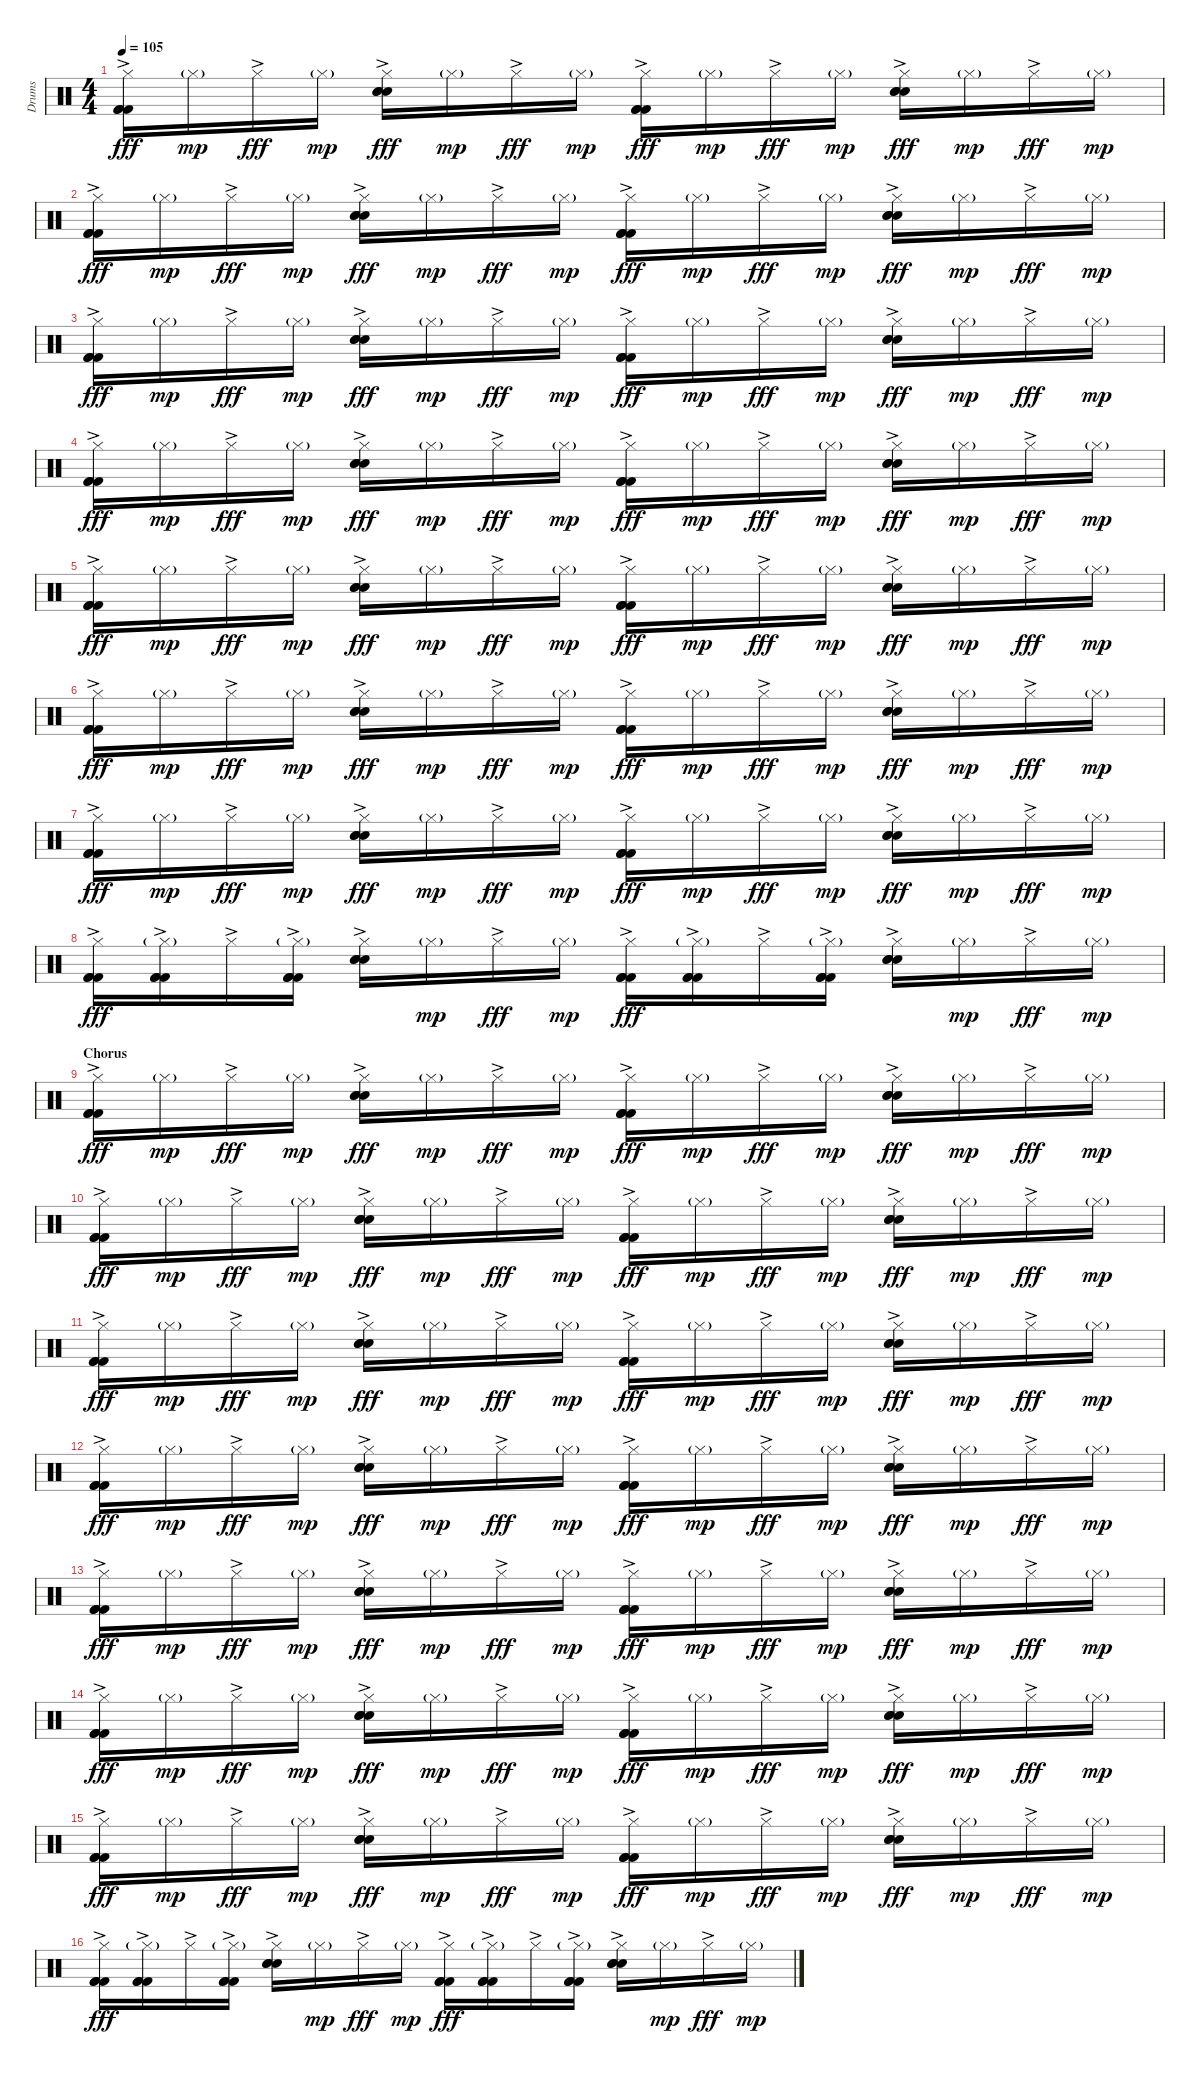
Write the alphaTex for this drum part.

\track ("Drums" "Drums") {instrument percussion}
\staff {score}
\articulation defaults
\ts (4 4)
\tempo 105
\clef neutral
\ks c
("Hi-Hat (closed)"{ac} "Kick (hit) 2"{ac} "Kick (hit) 2"{ac} "Kick (hit) 2"{ac}).16{dy fff} "Hi-Hat (closed)"{g}.16{dy mp} "Hi-Hat (closed)"{ac}.16{dy fff} "Hi-Hat (closed)"{g}.16{dy mp} ("Hi-Hat (closed)"{ac} "Snare (hit) 2"{ac} "Snare (hit) 2"{ac} "Snare (hit) 2"{ac}).16{dy fff} "Hi-Hat (closed)"{g}.16{dy mp} "Hi-Hat (closed)"{ac}.16{dy fff} "Hi-Hat (closed)"{g}.16{dy mp} ("Hi-Hat (closed)"{ac} "Kick (hit) 2"{ac} "Kick (hit) 2"{ac} "Kick (hit) 2"{ac}).16{dy fff} "Hi-Hat (closed)"{g}.16{dy mp} "Hi-Hat (closed)"{ac}.16{dy fff} "Hi-Hat (closed)"{g}.16{dy mp} ("Hi-Hat (closed)"{ac} "Snare (hit) 2"{ac} "Snare (hit) 2"{ac} "Snare (hit) 2"{ac}).16{dy fff} "Hi-Hat (closed)"{g}.16{dy mp} "Hi-Hat (closed)"{ac}.16{dy fff} "Hi-Hat (closed)"{g}.16{dy mp} |
("Hi-Hat (closed)"{ac} "Kick (hit) 2"{ac} "Kick (hit) 2"{ac} "Kick (hit) 2"{ac}).16{dy fff} "Hi-Hat (closed)"{g}.16{dy mp} "Hi-Hat (closed)"{ac}.16{dy fff} "Hi-Hat (closed)"{g}.16{dy mp} ("Hi-Hat (closed)"{ac} "Snare (hit) 2"{ac} "Snare (hit) 2"{ac} "Snare (hit) 2"{ac}).16{dy fff} "Hi-Hat (closed)"{g}.16{dy mp} "Hi-Hat (closed)"{ac}.16{dy fff} "Hi-Hat (closed)"{g}.16{dy mp} ("Hi-Hat (closed)"{ac} "Kick (hit) 2"{ac} "Kick (hit) 2"{ac} "Kick (hit) 2"{ac}).16{dy fff} "Hi-Hat (closed)"{g}.16{dy mp} "Hi-Hat (closed)"{ac}.16{dy fff} "Hi-Hat (closed)"{g}.16{dy mp} ("Hi-Hat (closed)"{ac} "Snare (hit) 2"{ac} "Snare (hit) 2"{ac} "Snare (hit) 2"{ac}).16{dy fff} "Hi-Hat (closed)"{g}.16{dy mp} "Hi-Hat (closed)"{ac}.16{dy fff} "Hi-Hat (closed)"{g}.16{dy mp} |
("Hi-Hat (closed)"{ac} "Kick (hit) 2"{ac} "Kick (hit) 2"{ac} "Kick (hit) 2"{ac}).16{dy fff} "Hi-Hat (closed)"{g}.16{dy mp} "Hi-Hat (closed)"{ac}.16{dy fff} "Hi-Hat (closed)"{g}.16{dy mp} ("Hi-Hat (closed)"{ac} "Snare (hit) 2"{ac} "Snare (hit) 2"{ac} "Snare (hit) 2"{ac}).16{dy fff} "Hi-Hat (closed)"{g}.16{dy mp} "Hi-Hat (closed)"{ac}.16{dy fff} "Hi-Hat (closed)"{g}.16{dy mp} ("Hi-Hat (closed)"{ac} "Kick (hit) 2"{ac} "Kick (hit) 2"{ac} "Kick (hit) 2"{ac}).16{dy fff} "Hi-Hat (closed)"{g}.16{dy mp} "Hi-Hat (closed)"{ac}.16{dy fff} "Hi-Hat (closed)"{g}.16{dy mp} ("Hi-Hat (closed)"{ac} "Snare (hit) 2"{ac} "Snare (hit) 2"{ac} "Snare (hit) 2"{ac}).16{dy fff} "Hi-Hat (closed)"{g}.16{dy mp} "Hi-Hat (closed)"{ac}.16{dy fff} "Hi-Hat (closed)"{g}.16{dy mp} |
("Hi-Hat (closed)"{ac} "Kick (hit) 2"{ac} "Kick (hit) 2"{ac} "Kick (hit) 2"{ac}).16{dy fff} "Hi-Hat (closed)"{g}.16{dy mp} "Hi-Hat (closed)"{ac}.16{dy fff} "Hi-Hat (closed)"{g}.16{dy mp} ("Hi-Hat (closed)"{ac} "Snare (hit) 2"{ac} "Snare (hit) 2"{ac} "Snare (hit) 2"{ac}).16{dy fff} "Hi-Hat (closed)"{g}.16{dy mp} "Hi-Hat (closed)"{ac}.16{dy fff} "Hi-Hat (closed)"{g}.16{dy mp} ("Hi-Hat (closed)"{ac} "Kick (hit) 2"{ac} "Kick (hit) 2"{ac} "Kick (hit) 2"{ac}).16{dy fff} "Hi-Hat (closed)"{g}.16{dy mp} "Hi-Hat (closed)"{ac}.16{dy fff} "Hi-Hat (closed)"{g}.16{dy mp} ("Hi-Hat (closed)"{ac} "Snare (hit) 2"{ac} "Snare (hit) 2"{ac} "Snare (hit) 2"{ac}).16{dy fff} "Hi-Hat (closed)"{g}.16{dy mp} "Hi-Hat (closed)"{ac}.16{dy fff} "Hi-Hat (closed)"{g}.16{dy mp} |
("Hi-Hat (closed)"{ac} "Kick (hit) 2"{ac} "Kick (hit) 2"{ac} "Kick (hit) 2"{ac}).16{dy fff} "Hi-Hat (closed)"{g}.16{dy mp} "Hi-Hat (closed)"{ac}.16{dy fff} "Hi-Hat (closed)"{g}.16{dy mp} ("Hi-Hat (closed)"{ac} "Snare (hit) 2"{ac} "Snare (hit) 2"{ac} "Snare (hit) 2"{ac}).16{dy fff} "Hi-Hat (closed)"{g}.16{dy mp} "Hi-Hat (closed)"{ac}.16{dy fff} "Hi-Hat (closed)"{g}.16{dy mp} ("Hi-Hat (closed)"{ac} "Kick (hit) 2"{ac} "Kick (hit) 2"{ac} "Kick (hit) 2"{ac}).16{dy fff} "Hi-Hat (closed)"{g}.16{dy mp} "Hi-Hat (closed)"{ac}.16{dy fff} "Hi-Hat (closed)"{g}.16{dy mp} ("Hi-Hat (closed)"{ac} "Snare (hit) 2"{ac} "Snare (hit) 2"{ac} "Snare (hit) 2"{ac}).16{dy fff} "Hi-Hat (closed)"{g}.16{dy mp} "Hi-Hat (closed)"{ac}.16{dy fff} "Hi-Hat (closed)"{g}.16{dy mp} |
("Hi-Hat (closed)"{ac} "Kick (hit) 2"{ac} "Kick (hit) 2"{ac} "Kick (hit) 2"{ac}).16{dy fff} "Hi-Hat (closed)"{g}.16{dy mp} "Hi-Hat (closed)"{ac}.16{dy fff} "Hi-Hat (closed)"{g}.16{dy mp} ("Hi-Hat (closed)"{ac} "Snare (hit) 2"{ac} "Snare (hit) 2"{ac} "Snare (hit) 2"{ac}).16{dy fff} "Hi-Hat (closed)"{g}.16{dy mp} "Hi-Hat (closed)"{ac}.16{dy fff} "Hi-Hat (closed)"{g}.16{dy mp} ("Hi-Hat (closed)"{ac} "Kick (hit) 2"{ac} "Kick (hit) 2"{ac} "Kick (hit) 2"{ac}).16{dy fff} "Hi-Hat (closed)"{g}.16{dy mp} "Hi-Hat (closed)"{ac}.16{dy fff} "Hi-Hat (closed)"{g}.16{dy mp} ("Hi-Hat (closed)"{ac} "Snare (hit) 2"{ac} "Snare (hit) 2"{ac} "Snare (hit) 2"{ac}).16{dy fff} "Hi-Hat (closed)"{g}.16{dy mp} "Hi-Hat (closed)"{ac}.16{dy fff} "Hi-Hat (closed)"{g}.16{dy mp} |
("Hi-Hat (closed)"{ac} "Kick (hit) 2"{ac} "Kick (hit) 2"{ac} "Kick (hit) 2"{ac}).16{dy fff} "Hi-Hat (closed)"{g}.16{dy mp} "Hi-Hat (closed)"{ac}.16{dy fff} "Hi-Hat (closed)"{g}.16{dy mp} ("Hi-Hat (closed)"{ac} "Snare (hit) 2"{ac} "Snare (hit) 2"{ac} "Snare (hit) 2"{ac}).16{dy fff} "Hi-Hat (closed)"{g}.16{dy mp} "Hi-Hat (closed)"{ac}.16{dy fff} "Hi-Hat (closed)"{g}.16{dy mp} ("Hi-Hat (closed)"{ac} "Kick (hit) 2"{ac} "Kick (hit) 2"{ac} "Kick (hit) 2"{ac}).16{dy fff} "Hi-Hat (closed)"{g}.16{dy mp} "Hi-Hat (closed)"{ac}.16{dy fff} "Hi-Hat (closed)"{g}.16{dy mp} ("Hi-Hat (closed)"{ac} "Snare (hit) 2"{ac} "Snare (hit) 2"{ac} "Snare (hit) 2"{ac}).16{dy fff} "Hi-Hat (closed)"{g}.16{dy mp} "Hi-Hat (closed)"{ac}.16{dy fff} "Hi-Hat (closed)"{g}.16{dy mp} |
("Hi-Hat (closed)"{ac} "Kick (hit) 2"{ac} "Kick (hit) 2"{ac} "Kick (hit) 2"{ac}).16{dy fff} ("Hi-Hat (closed)"{g} "Kick (hit) 2"{ac} "Kick (hit) 2"{ac} "Kick (hit) 2"{ac}).16 "Hi-Hat (closed)"{ac}.16 ("Hi-Hat (closed)"{g} "Kick (hit) 2"{ac} "Kick (hit) 2"{ac} "Kick (hit) 2"{ac}).16 ("Hi-Hat (closed)"{ac} "Snare (hit) 2"{ac} "Snare (hit) 2"{ac} "Snare (hit) 2"{ac}).16 "Hi-Hat (closed)"{g}.16{dy mp} "Hi-Hat (closed)"{ac}.16{dy fff} "Hi-Hat (closed)"{g}.16{dy mp} ("Hi-Hat (closed)"{ac} "Kick (hit) 2"{ac} "Kick (hit) 2"{ac} "Kick (hit) 2"{ac}).16{dy fff} ("Hi-Hat (closed)"{g} "Kick (hit) 2"{ac} "Kick (hit) 2"{ac} "Kick (hit) 2"{ac}).16 "Hi-Hat (closed)"{ac}.16 ("Hi-Hat (closed)"{g} "Kick (hit) 2"{ac} "Kick (hit) 2"{ac} "Kick (hit) 2"{ac}).16 ("Hi-Hat (closed)"{ac} "Snare (hit) 2"{ac} "Snare (hit) 2"{ac} "Snare (hit) 2"{ac}).16 "Hi-Hat (closed)"{g}.16{dy mp} "Hi-Hat (closed)"{ac}.16{dy fff} "Hi-Hat (closed)"{g}.16{dy mp} |
\section ("" "Chorus")
("Hi-Hat (closed)"{ac} "Kick (hit) 2"{ac} "Kick (hit) 2"{ac} "Kick (hit) 2"{ac}).16{dy fff} "Hi-Hat (closed)"{g}.16{dy mp} "Hi-Hat (closed)"{ac}.16{dy fff} "Hi-Hat (closed)"{g}.16{dy mp} ("Hi-Hat (closed)"{ac} "Snare (hit) 2"{ac} "Snare (hit) 2"{ac} "Snare (hit) 2"{ac}).16{dy fff} "Hi-Hat (closed)"{g}.16{dy mp} "Hi-Hat (closed)"{ac}.16{dy fff} "Hi-Hat (closed)"{g}.16{dy mp} ("Hi-Hat (closed)"{ac} "Kick (hit) 2"{ac} "Kick (hit) 2"{ac} "Kick (hit) 2"{ac}).16{dy fff} "Hi-Hat (closed)"{g}.16{dy mp} "Hi-Hat (closed)"{ac}.16{dy fff} "Hi-Hat (closed)"{g}.16{dy mp} ("Hi-Hat (closed)"{ac} "Snare (hit) 2"{ac} "Snare (hit) 2"{ac} "Snare (hit) 2"{ac}).16{dy fff} "Hi-Hat (closed)"{g}.16{dy mp} "Hi-Hat (closed)"{ac}.16{dy fff} "Hi-Hat (closed)"{g}.16{dy mp} |
("Hi-Hat (closed)"{ac} "Kick (hit) 2"{ac} "Kick (hit) 2"{ac} "Kick (hit) 2"{ac}).16{dy fff} "Hi-Hat (closed)"{g}.16{dy mp} "Hi-Hat (closed)"{ac}.16{dy fff} "Hi-Hat (closed)"{g}.16{dy mp} ("Hi-Hat (closed)"{ac} "Snare (hit) 2"{ac} "Snare (hit) 2"{ac} "Snare (hit) 2"{ac}).16{dy fff} "Hi-Hat (closed)"{g}.16{dy mp} "Hi-Hat (closed)"{ac}.16{dy fff} "Hi-Hat (closed)"{g}.16{dy mp} ("Hi-Hat (closed)"{ac} "Kick (hit) 2"{ac} "Kick (hit) 2"{ac} "Kick (hit) 2"{ac}).16{dy fff} "Hi-Hat (closed)"{g}.16{dy mp} "Hi-Hat (closed)"{ac}.16{dy fff} "Hi-Hat (closed)"{g}.16{dy mp} ("Hi-Hat (closed)"{ac} "Snare (hit) 2"{ac} "Snare (hit) 2"{ac} "Snare (hit) 2"{ac}).16{dy fff} "Hi-Hat (closed)"{g}.16{dy mp} "Hi-Hat (closed)"{ac}.16{dy fff} "Hi-Hat (closed)"{g}.16{dy mp} |
("Hi-Hat (closed)"{ac} "Kick (hit) 2"{ac} "Kick (hit) 2"{ac} "Kick (hit) 2"{ac}).16{dy fff} "Hi-Hat (closed)"{g}.16{dy mp} "Hi-Hat (closed)"{ac}.16{dy fff} "Hi-Hat (closed)"{g}.16{dy mp} ("Hi-Hat (closed)"{ac} "Snare (hit) 2"{ac} "Snare (hit) 2"{ac} "Snare (hit) 2"{ac}).16{dy fff} "Hi-Hat (closed)"{g}.16{dy mp} "Hi-Hat (closed)"{ac}.16{dy fff} "Hi-Hat (closed)"{g}.16{dy mp} ("Hi-Hat (closed)"{ac} "Kick (hit) 2"{ac} "Kick (hit) 2"{ac} "Kick (hit) 2"{ac}).16{dy fff} "Hi-Hat (closed)"{g}.16{dy mp} "Hi-Hat (closed)"{ac}.16{dy fff} "Hi-Hat (closed)"{g}.16{dy mp} ("Hi-Hat (closed)"{ac} "Snare (hit) 2"{ac} "Snare (hit) 2"{ac} "Snare (hit) 2"{ac}).16{dy fff} "Hi-Hat (closed)"{g}.16{dy mp} "Hi-Hat (closed)"{ac}.16{dy fff} "Hi-Hat (closed)"{g}.16{dy mp} |
("Hi-Hat (closed)"{ac} "Kick (hit) 2"{ac} "Kick (hit) 2"{ac} "Kick (hit) 2"{ac}).16{dy fff} "Hi-Hat (closed)"{g}.16{dy mp} "Hi-Hat (closed)"{ac}.16{dy fff} "Hi-Hat (closed)"{g}.16{dy mp} ("Hi-Hat (closed)"{ac} "Snare (hit) 2"{ac} "Snare (hit) 2"{ac} "Snare (hit) 2"{ac}).16{dy fff} "Hi-Hat (closed)"{g}.16{dy mp} "Hi-Hat (closed)"{ac}.16{dy fff} "Hi-Hat (closed)"{g}.16{dy mp} ("Hi-Hat (closed)"{ac} "Kick (hit) 2"{ac} "Kick (hit) 2"{ac} "Kick (hit) 2"{ac}).16{dy fff} "Hi-Hat (closed)"{g}.16{dy mp} "Hi-Hat (closed)"{ac}.16{dy fff} "Hi-Hat (closed)"{g}.16{dy mp} ("Hi-Hat (closed)"{ac} "Snare (hit) 2"{ac} "Snare (hit) 2"{ac} "Snare (hit) 2"{ac}).16{dy fff} "Hi-Hat (closed)"{g}.16{dy mp} "Hi-Hat (closed)"{ac}.16{dy fff} "Hi-Hat (closed)"{g}.16{dy mp} |
("Hi-Hat (closed)"{ac} "Kick (hit) 2"{ac} "Kick (hit) 2"{ac} "Kick (hit) 2"{ac}).16{dy fff} "Hi-Hat (closed)"{g}.16{dy mp} "Hi-Hat (closed)"{ac}.16{dy fff} "Hi-Hat (closed)"{g}.16{dy mp} ("Hi-Hat (closed)"{ac} "Snare (hit) 2"{ac} "Snare (hit) 2"{ac} "Snare (hit) 2"{ac}).16{dy fff} "Hi-Hat (closed)"{g}.16{dy mp} "Hi-Hat (closed)"{ac}.16{dy fff} "Hi-Hat (closed)"{g}.16{dy mp} ("Hi-Hat (closed)"{ac} "Kick (hit) 2"{ac} "Kick (hit) 2"{ac} "Kick (hit) 2"{ac}).16{dy fff} "Hi-Hat (closed)"{g}.16{dy mp} "Hi-Hat (closed)"{ac}.16{dy fff} "Hi-Hat (closed)"{g}.16{dy mp} ("Hi-Hat (closed)"{ac} "Snare (hit) 2"{ac} "Snare (hit) 2"{ac} "Snare (hit) 2"{ac}).16{dy fff} "Hi-Hat (closed)"{g}.16{dy mp} "Hi-Hat (closed)"{ac}.16{dy fff} "Hi-Hat (closed)"{g}.16{dy mp} |
("Hi-Hat (closed)"{ac} "Kick (hit) 2"{ac} "Kick (hit) 2"{ac} "Kick (hit) 2"{ac}).16{dy fff} "Hi-Hat (closed)"{g}.16{dy mp} "Hi-Hat (closed)"{ac}.16{dy fff} "Hi-Hat (closed)"{g}.16{dy mp} ("Hi-Hat (closed)"{ac} "Snare (hit) 2"{ac} "Snare (hit) 2"{ac} "Snare (hit) 2"{ac}).16{dy fff} "Hi-Hat (closed)"{g}.16{dy mp} "Hi-Hat (closed)"{ac}.16{dy fff} "Hi-Hat (closed)"{g}.16{dy mp} ("Hi-Hat (closed)"{ac} "Kick (hit) 2"{ac} "Kick (hit) 2"{ac} "Kick (hit) 2"{ac}).16{dy fff} "Hi-Hat (closed)"{g}.16{dy mp} "Hi-Hat (closed)"{ac}.16{dy fff} "Hi-Hat (closed)"{g}.16{dy mp} ("Hi-Hat (closed)"{ac} "Snare (hit) 2"{ac} "Snare (hit) 2"{ac} "Snare (hit) 2"{ac}).16{dy fff} "Hi-Hat (closed)"{g}.16{dy mp} "Hi-Hat (closed)"{ac}.16{dy fff} "Hi-Hat (closed)"{g}.16{dy mp} |
("Hi-Hat (closed)"{ac} "Kick (hit) 2"{ac} "Kick (hit) 2"{ac} "Kick (hit) 2"{ac}).16{dy fff} "Hi-Hat (closed)"{g}.16{dy mp} "Hi-Hat (closed)"{ac}.16{dy fff} "Hi-Hat (closed)"{g}.16{dy mp} ("Hi-Hat (closed)"{ac} "Snare (hit) 2"{ac} "Snare (hit) 2"{ac} "Snare (hit) 2"{ac}).16{dy fff} "Hi-Hat (closed)"{g}.16{dy mp} "Hi-Hat (closed)"{ac}.16{dy fff} "Hi-Hat (closed)"{g}.16{dy mp} ("Hi-Hat (closed)"{ac} "Kick (hit) 2"{ac} "Kick (hit) 2"{ac} "Kick (hit) 2"{ac}).16{dy fff} "Hi-Hat (closed)"{g}.16{dy mp} "Hi-Hat (closed)"{ac}.16{dy fff} "Hi-Hat (closed)"{g}.16{dy mp} ("Hi-Hat (closed)"{ac} "Snare (hit) 2"{ac} "Snare (hit) 2"{ac} "Snare (hit) 2"{ac}).16{dy fff} "Hi-Hat (closed)"{g}.16{dy mp} "Hi-Hat (closed)"{ac}.16{dy fff} "Hi-Hat (closed)"{g}.16{dy mp} |
("Hi-Hat (closed)"{ac} "Kick (hit) 2"{ac} "Kick (hit) 2"{ac} "Kick (hit) 2"{ac}).16{dy fff} ("Hi-Hat (closed)"{g} "Kick (hit) 2"{ac} "Kick (hit) 2"{ac} "Kick (hit) 2"{ac}).16 "Hi-Hat (closed)"{ac}.16 ("Hi-Hat (closed)"{g} "Kick (hit) 2"{ac} "Kick (hit) 2"{ac} "Kick (hit) 2"{ac}).16 ("Hi-Hat (closed)"{ac} "Snare (hit) 2"{ac} "Snare (hit) 2"{ac} "Snare (hit) 2"{ac}).16 "Hi-Hat (closed)"{g}.16{dy mp} "Hi-Hat (closed)"{ac}.16{dy fff} "Hi-Hat (closed)"{g}.16{dy mp} ("Hi-Hat (closed)"{ac} "Kick (hit) 2"{ac} "Kick (hit) 2"{ac} "Kick (hit) 2"{ac}).16{dy fff} ("Hi-Hat (closed)"{g} "Kick (hit) 2"{ac} "Kick (hit) 2"{ac} "Kick (hit) 2"{ac}).16 "Hi-Hat (closed)"{ac}.16 ("Hi-Hat (closed)"{g} "Kick (hit) 2"{ac} "Kick (hit) 2"{ac} "Kick (hit) 2"{ac}).16 ("Hi-Hat (closed)"{ac} "Snare (hit) 2"{ac} "Snare (hit) 2"{ac} "Snare (hit) 2"{ac}).16 "Hi-Hat (closed)"{g}.16{dy mp} "Hi-Hat (closed)"{ac}.16{dy fff} "Hi-Hat (closed)"{g}.16{dy mp}
